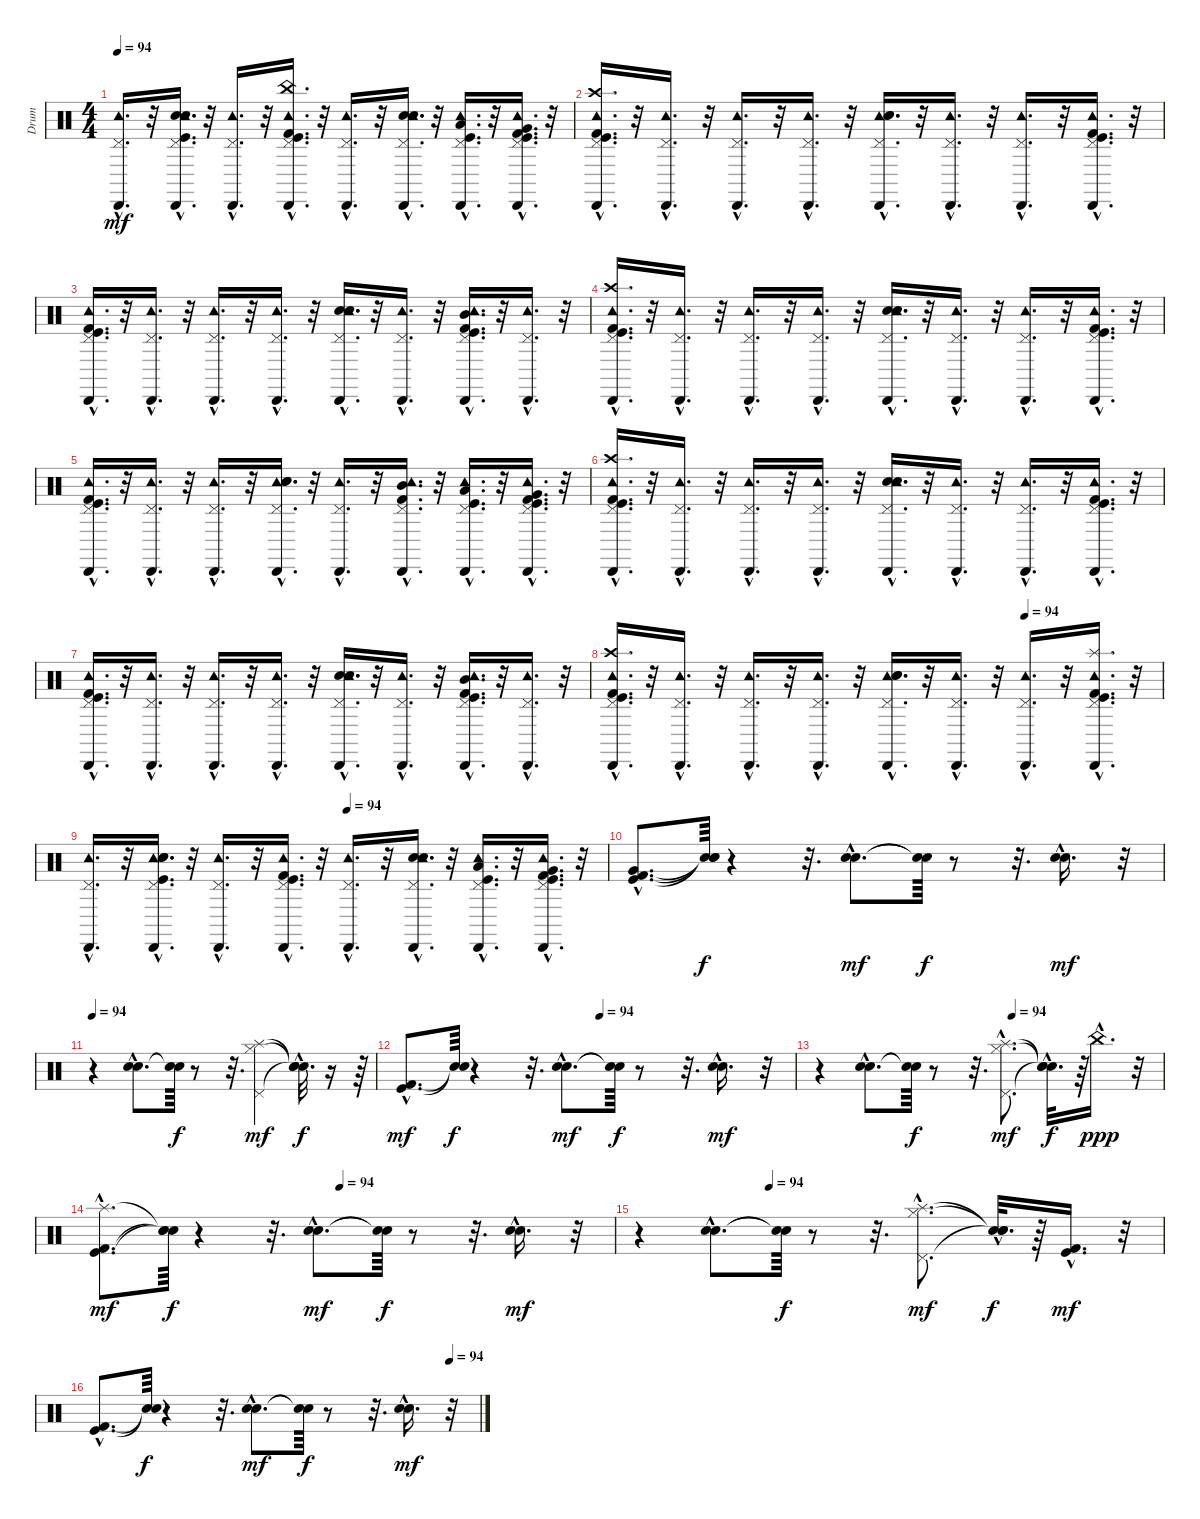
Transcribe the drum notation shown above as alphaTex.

\track ("Drum" "Drum") {instrument percussion}
\staff {score}
\articulation defaults
\ts (4 4)
\tempo 94
\clef neutral
\ks c
("Tambourine (hit)"{hac} "Pedal Hi-Hat (hit)"{hac} "Cabasa (hit)"{hac}).16{d dy mf} r.32 ("Kick (hit)"{hac} "Electric Snare (hit)"{hac} "Snare (hit) 2"{hac} "Tambourine (hit)"{hac} "Pedal Hi-Hat (hit)"{hac} "Cabasa (hit)"{hac}).16{d} r.32 ("Tambourine (hit)"{hac} "Pedal Hi-Hat (hit)"{hac} "Cabasa (hit)"{hac}).16{d} r.32 ("Kick (hit)"{hac} "Kick (hit) 2"{hac} "China (hit)"{hac} "Tambourine (hit)"{hac} "Pedal Hi-Hat (hit)"{hac} "Cabasa (hit)"{hac}).16{d} r.32 ("Tambourine (hit)"{hac} "Pedal Hi-Hat (hit)"{hac} "Cabasa (hit)"{hac}).16{d} r.32 ("Electric Snare (hit)"{hac} "Tambourine (hit)"{hac} "Pedal Hi-Hat (hit)"{hac} "Cabasa (hit)"{hac} "Snare (hit) 2"{hac}).16{d} r.32 ("Tambourine (hit)"{hac} "Pedal Hi-Hat (hit)"{hac} "Cabasa (hit)"{hac} "Low Tom (hit)"{hac} "Kick (hit)"{hac}).16{d} r.32 ("Tambourine (hit)"{hac} "Kick (hit)"{hac} "Pedal Hi-Hat (hit)"{hac} "Kick (hit) 2"{hac} "Cabasa (hit)"{hac} "Very Low Tom (hit)"{hac}).16{d} r.32 |
("Kick (hit)"{hac} "Tambourine (hit)"{hac} "Pedal Hi-Hat (hit)"{hac} "Crash high (hit)"{hac} "Cabasa (hit)"{hac} "Kick (hit) 2"{hac}).16{d} r.32 ("Cabasa (hit)"{hac} "Tambourine (hit)"{hac} "Pedal Hi-Hat (hit)"{hac}).16{d} r.32 ("Pedal Hi-Hat (hit)"{hac} "Cabasa (hit)"{hac} "Tambourine (hit)"{hac}).16{d} r.32 ("Pedal Hi-Hat (hit)"{hac} "Tambourine (hit)"{hac} "Cabasa (hit)"{hac}).16{d} r.32 ("Tambourine (hit)"{hac} "Electric Snare (hit)"{hac} "Cabasa (hit)"{hac} "Snare (hit) 2"{hac} "Pedal Hi-Hat (hit)"{hac}).16{d} r.32 ("Pedal Hi-Hat (hit)"{hac} "Cabasa (hit)"{hac} "Tambourine (hit)"{hac}).16{d} r.32 ("Pedal Hi-Hat (hit)"{hac} "Tambourine (hit)"{hac} "Cabasa (hit)"{hac}).16{d} r.32 ("Cabasa (hit)"{hac} "Kick (hit)"{hac} "Pedal Hi-Hat (hit)"{hac} "Kick (hit) 2"{hac} "Tambourine (hit)"{hac}).16{d} r.32 |
("Cabasa (hit)"{hac} "Kick (hit) 2"{hac} "Pedal Hi-Hat (hit)"{hac} "Kick (hit)"{hac} "Tambourine (hit)"{hac}).16{d} r.32 ("Cabasa (hit)"{hac} "Pedal Hi-Hat (hit)"{hac} "Tambourine (hit)"{hac}).16{d} r.32 ("Cabasa (hit)"{hac} "Pedal Hi-Hat (hit)"{hac} "Tambourine (hit)"{hac}).16{d} r.32 ("Cabasa (hit)"{hac} "Pedal Hi-Hat (hit)"{hac} "Tambourine (hit)"{hac}).16{d} r.32 ("Cabasa (hit)"{hac} "Electric Snare (hit)"{hac} "Pedal Hi-Hat (hit)"{hac} "Snare (hit) 2"{hac} "Tambourine (hit)"{hac}).16{d} r.32 ("Cabasa (hit)"{hac} "Pedal Hi-Hat (hit)"{hac} "Tambourine (hit)"{hac}).16{d} r.32 ("Cabasa (hit)"{hac} "Pedal Hi-Hat (hit)"{hac} "Tambourine (hit)"{hac} "Mid Tom (hit)"{hac} "Kick (hit)"{hac} "Kick (hit) 2"{hac}).16{d} r.32 ("Cabasa (hit)"{hac} "Pedal Hi-Hat (hit)"{hac} "Tambourine (hit)"{hac}).16{d} r.32 |
("Kick (hit)"{hac} "Tambourine (hit)"{hac} "Crash high (hit)"{hac} "Kick (hit) 2"{hac} "Pedal Hi-Hat (hit)"{hac} "Cabasa (hit)"{hac}).16{d} r.32 ("Cabasa (hit)"{hac} "Pedal Hi-Hat (hit)"{hac} "Tambourine (hit)"{hac}).16{d} r.32 ("Tambourine (hit)"{hac} "Pedal Hi-Hat (hit)"{hac} "Cabasa (hit)"{hac}).16{d} r.32 ("Tambourine (hit)"{hac} "Cabasa (hit)"{hac} "Pedal Hi-Hat (hit)"{hac}).16{d} r.32 ("Cabasa (hit)"{hac} "Pedal Hi-Hat (hit)"{hac} "Snare (hit) 2"{hac} "Electric Snare (hit)"{hac} "Tambourine (hit)"{hac}).16{d} r.32 ("Cabasa (hit)"{hac} "Pedal Hi-Hat (hit)"{hac} "Tambourine (hit)"{hac}).16{d} r.32 ("Cabasa (hit)"{hac} "Tambourine (hit)"{hac} "Pedal Hi-Hat (hit)"{hac}).16{d} r.32 ("Cabasa (hit)"{hac} "Pedal Hi-Hat (hit)"{hac} "Kick (hit) 2"{hac} "Tambourine (hit)"{hac} "Kick (hit)"{hac}).16{d} r.32 |
("Tambourine (hit)"{hac} "Kick (hit)"{hac} "Pedal Hi-Hat (hit)"{hac} "Kick (hit) 2"{hac} "Cabasa (hit)"{hac}).16{d} r.32 ("Tambourine (hit)"{hac} "Pedal Hi-Hat (hit)"{hac} "Cabasa (hit)"{hac}).16{d} r.32 ("Tambourine (hit)"{hac} "Pedal Hi-Hat (hit)"{hac} "Cabasa (hit)"{hac}).16{d} r.32 ("Tambourine (hit)"{hac} "Pedal Hi-Hat (hit)"{hac} "Cabasa (hit)"{hac} "Snare (hit) 2"{hac} "Electric Snare (hit)"{hac}).16{d} r.32 ("Tambourine (hit)"{hac} "Pedal Hi-Hat (hit)"{hac} "Cabasa (hit)"{hac}).16{d} r.32 ("Tambourine (hit)"{hac} "Pedal Hi-Hat (hit)"{hac} "Cabasa (hit)"{hac} "Mid Tom (hit)"{hac} "Kick (hit) 2"{hac}).16{d} r.32 ("Tambourine (hit)"{hac} "Pedal Hi-Hat (hit)"{hac} "Cabasa (hit)"{hac} "Low Tom (hit)"{hac} "Kick (hit)"{hac}).16{d} r.32 ("Tambourine (hit)"{hac} "Kick (hit)"{hac} "Pedal Hi-Hat (hit)"{hac} "Kick (hit) 2"{hac} "Cabasa (hit)"{hac} "Very Low Tom (hit)"{hac}).16{d} r.32 |
("Cabasa (hit)"{hac} "Kick (hit) 2"{hac} "Pedal Hi-Hat (hit)"{hac} "Crash high (hit)"{hac} "Kick (hit)"{hac} "Tambourine (hit)"{hac}).16{d} r.32 ("Cabasa (hit)"{hac} "Pedal Hi-Hat (hit)"{hac} "Tambourine (hit)"{hac}).16{d} r.32 ("Cabasa (hit)"{hac} "Pedal Hi-Hat (hit)"{hac} "Tambourine (hit)"{hac}).16{d} r.32 ("Cabasa (hit)"{hac} "Pedal Hi-Hat (hit)"{hac} "Tambourine (hit)"{hac}).16{d} r.32 ("Cabasa (hit)"{hac} "Electric Snare (hit)"{hac} "Pedal Hi-Hat (hit)"{hac} "Snare (hit) 2"{hac} "Tambourine (hit)"{hac}).16{d} r.32 ("Cabasa (hit)"{hac} "Pedal Hi-Hat (hit)"{hac} "Tambourine (hit)"{hac}).16{d} r.32 ("Cabasa (hit)"{hac} "Pedal Hi-Hat (hit)"{hac} "Tambourine (hit)"{hac}).16{d} r.32 ("Cabasa (hit)"{hac} "Kick (hit) 2"{hac} "Pedal Hi-Hat (hit)"{hac} "Kick (hit)"{hac} "Tambourine (hit)"{hac}).16{d} r.32 |
("Cabasa (hit)"{hac} "Kick (hit) 2"{hac} "Pedal Hi-Hat (hit)"{hac} "Kick (hit)"{hac} "Tambourine (hit)"{hac}).16{d} r.32 ("Cabasa (hit)"{hac} "Pedal Hi-Hat (hit)"{hac} "Tambourine (hit)"{hac}).16{d} r.32 ("Cabasa (hit)"{hac} "Pedal Hi-Hat (hit)"{hac} "Tambourine (hit)"{hac}).16{d} r.32 ("Cabasa (hit)"{hac} "Pedal Hi-Hat (hit)"{hac} "Tambourine (hit)"{hac}).16{d} r.32 ("Cabasa (hit)"{hac} "Electric Snare (hit)"{hac} "Pedal Hi-Hat (hit)"{hac} "Snare (hit) 2"{hac} "Tambourine (hit)"{hac}).16{d} r.32 ("Cabasa (hit)"{hac} "Pedal Hi-Hat (hit)"{hac} "Tambourine (hit)"{hac}).16{d} r.32 ("Cabasa (hit)"{hac} "Pedal Hi-Hat (hit)"{hac} "Tambourine (hit)"{hac} "Mid Tom (hit)"{hac} "Kick (hit)"{hac} "Kick (hit) 2"{hac}).16{d} r.32 ("Cabasa (hit)"{hac} "Pedal Hi-Hat (hit)"{hac} "Tambourine (hit)"{hac}).16{d} r.32 |
\tempo (94 0.75)
("Tambourine (hit)"{hac} "Kick (hit)"{hac} "Crash high (hit)"{hac} "Pedal Hi-Hat (hit)"{hac} "Kick (hit) 2"{hac} "Cabasa (hit)"{hac}).16{d} r.32 ("Tambourine (hit)"{hac} "Pedal Hi-Hat (hit)"{hac} "Cabasa (hit)"{hac}).16{d} r.32 ("Tambourine (hit)"{hac} "Pedal Hi-Hat (hit)"{hac} "Cabasa (hit)"{hac}).16{d} r.32 ("Tambourine (hit)"{hac} "Pedal Hi-Hat (hit)"{hac} "Cabasa (hit)"{hac}).16{d} r.32 ("Tambourine (hit)"{hac} "Snare (hit) 2"{hac} "Pedal Hi-Hat (hit)"{hac} "Electric Snare (hit)"{hac} "Cabasa (hit)"{hac}).16{d} r.32 ("Tambourine (hit)"{hac} "Pedal Hi-Hat (hit)"{hac} "Cabasa (hit)"{hac}).16{d} r.32 ("Tambourine (hit)"{hac} "Pedal Hi-Hat (hit)"{hac} "Cabasa (hit)"{hac}).16{d} r.32 ("Splash (hit)"{hac} "Tambourine (hit)"{hac} "Kick (hit)"{hac} "Pedal Hi-Hat (hit)"{hac} "Kick (hit) 2"{hac} "Cabasa (hit)"{hac}).16{d} r.32 |
\tempo (94 0.5)
("Cabasa (hit)"{hac} "Pedal Hi-Hat (hit)"{hac} "Tambourine (hit)"{hac}).16{d} r.32 ("Cabasa (hit)"{hac} "Pedal Hi-Hat (hit)"{hac} "Tambourine (hit)"{hac} "Snare (hit) 2"{hac} "Electric Snare (hit)"{hac} "Kick (hit)"{hac}).16{d} r.32 ("Cabasa (hit)"{hac} "Pedal Hi-Hat (hit)"{hac} "Tambourine (hit)"{hac}).16{d} r.32 ("Cabasa (hit)"{hac} "Pedal Hi-Hat (hit)"{hac} "Tambourine (hit)"{hac} "Kick (hit) 2"{hac} "Kick (hit)"{hac}).16{d} r.32 ("Cabasa (hit)"{hac} "Pedal Hi-Hat (hit)"{hac} "Tambourine (hit)"{hac}).16{d} r.32 ("Snare (hit) 2"{hac} "Cabasa (hit)"{hac} "Pedal Hi-Hat (hit)"{hac} "Tambourine (hit)"{hac} "Electric Snare (hit)"{hac}).16{d} r.32 ("Kick (hit)"{hac} "Low Tom (hit)"{hac} "Cabasa (hit)"{hac} "Pedal Hi-Hat (hit)"{hac} "Tambourine (hit)"{hac}).16{d} r.32 ("Very Low Tom (hit)"{hac} "Cabasa (hit)"{hac} "Kick (hit) 2"{hac} "Pedal Hi-Hat (hit)"{hac} "Kick (hit)"{hac} "Tambourine (hit)"{hac}).16{d} r.32 |
("Kick (hit) 2"{hac} "Very Low Tom (hit)"{hac} "Kick (hit)"{hac}).8{d} ("Snare (hit)"{t} "Snare (hit)"{t} "Snare (hit)"{t}).64{dy f} r.4 r.32{d} ("Electric Snare (hit)"{hac} "Snare (hit) 2"{hac}).8{d dy mf} ("Snare (hit)"{t} "Snare (hit)"{t}).64{dy f} r.8 r.32{d} ("Electric Snare (hit)"{hac} "Snare (hit) 2"{hac}).16{d dy mf} r.32 |
\tempo 94
r.4 ("Electric Snare (hit)"{hac} "Snare (hit) 2"{hac}).8{d} ("Snare (hit)"{t} "Snare (hit)"{t}).64{dy f} r.8 r.32{d} ("Pedal Hi-Hat (hit)" "Splash (hit)" "Hi-Hat (closed)").4{dy mf} ("Snare (hit)"{hac t} "Snare (hit)"{hac t} "Snare (hit)"{hac t}).32{d dy f} r.16 r.64 |
\tempo (94 0.5)
("Kick (hit)"{hac} "Kick (hit) 2"{hac}).8{d dy mf} ("Snare (hit)"{t} "Snare (hit)"{t}).64{dy f} r.4 r.32{d} ("Electric Snare (hit)"{hac} "Snare (hit) 2"{hac}).8{d dy mf} ("Snare (hit)"{t} "Snare (hit)"{t}).64{dy f} r.8 r.32{d} ("Electric Snare (hit)"{hac} "Snare (hit) 2"{hac}).16{d dy mf} r.32 |
\tempo (94 0.5625)
r.4 ("Electric Snare (hit)"{hac} "Snare (hit) 2"{hac}).8{d} ("Snare (hit)"{t} "Snare (hit)"{t}).64{dy f} r.8 r.32{d} ("Pedal Hi-Hat (hit)"{hac} "Hi-Hat (closed)"{hac} "Splash (hit)"{hac}).8{d dy mf} ("Snare (hit)"{hac t} "Snare (hit)"{hac t} "Snare (hit)"{hac t}).32{d dy f} r.64 "China (hit)"{hac}.16{d dy ppp} r.32 |
\tempo (94 0.46875)
("Kick (hit) 2"{hac} "Splash (hit)"{hac} "Kick (hit)"{hac}).8{d dy mf} ("Snare (hit)"{t} "Snare (hit)"{t} "Snare (hit)"{t}).64{dy f} r.4 r.32{d} ("Electric Snare (hit)"{hac} "Snare (hit) 2"{hac}).8{d dy mf} ("Snare (hit)"{t} "Snare (hit)"{t}).64{dy f} r.8 r.32{d} ("Electric Snare (hit)"{hac} "Snare (hit) 2"{hac}).16{d dy mf} r.32 |
\tempo (94 0.25)
r.4 ("Electric Snare (hit)"{hac} "Snare (hit) 2"{hac}).8{d} ("Snare (hit)"{t} "Snare (hit)"{t}).64{dy f} r.8 r.32{d} ("Pedal Hi-Hat (hit)"{hac} "Splash (hit)"{hac} "Hi-Hat (closed)"{hac}).8{d dy mf} ("Snare (hit)"{hac t} "Snare (hit)"{hac t} "Snare (hit)"{hac t}).32{d dy f} r.64 ("Kick (hit) 2"{hac} "Kick (hit)"{hac}).16{d dy mf} r.32 |
\tempo (94 0.921875)
("Kick (hit) 2"{hac} "Kick (hit)"{hac}).8{d} ("Snare (hit)"{t} "Snare (hit)"{t}).64{dy f} r.4 r.32{d} ("Electric Snare (hit)"{hac} "Snare (hit) 2"{hac}).8{d dy mf} ("Snare (hit)"{t} "Snare (hit)"{t}).64{dy f} r.8 r.32{d} ("Electric Snare (hit)"{hac} "Snare (hit) 2"{hac}).16{d dy mf} r.32
